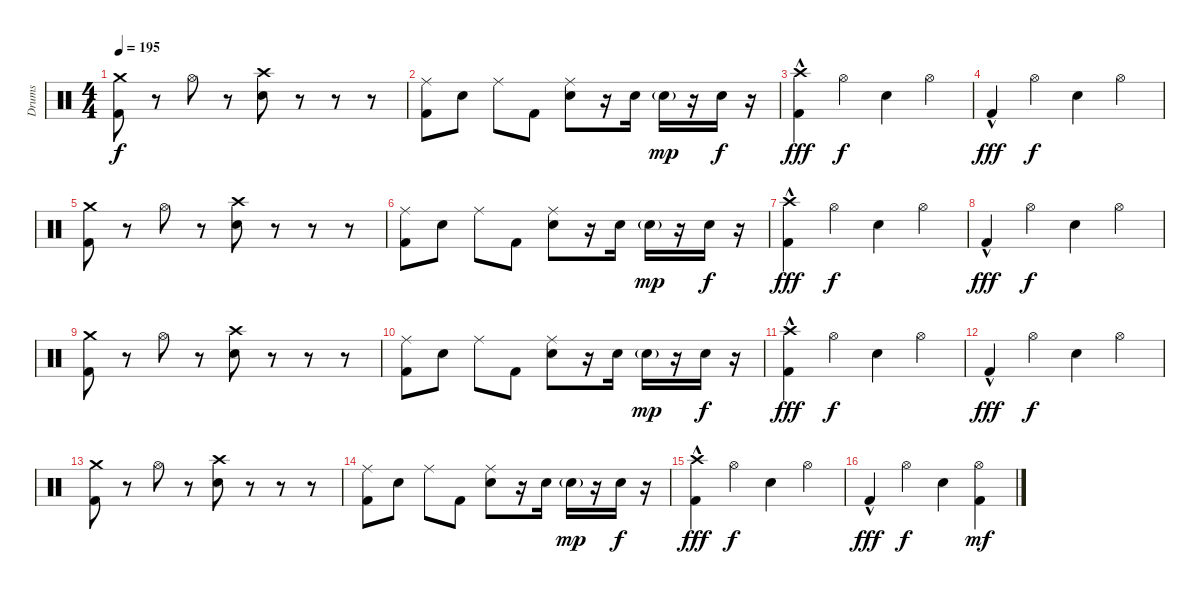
\track ("Drums" "Drums") {instrument percussion}
\staff {score}
\articulation defaults
\ts (4 4)
\tempo 195
\clef neutral
\ks c
("Crash medium (hit)" "Kick (hit) 2").8{dy f} r.8 "Hi-Hat (open)".8 r.8 ("Crash high (hit)" "Electric Snare (hit)").8 r.8 r.8 r.8 |
("Ride (middle)" "Kick (hit) 2").8 "Electric Snare (hit)".8 "Ride (middle)".8 "Kick (hit) 2".8 ("Ride (middle)" "Electric Snare (hit)").8 r.16 "Electric Snare (hit)".16 "Electric Snare (hit)"{g}.16{dy mp} r.16 "Electric Snare (hit)".16{dy f} r.16 |
("Crash high (hit)" "Kick (hit) 2"{hac}).4{dy fff} "Hi-Hat (open)".4{dy f} "Electric Snare (hit)".4 "Hi-Hat (open)".4 |
"Kick (hit) 2"{hac}.4{dy fff} "Hi-Hat (open)".4{dy f} "Electric Snare (hit)".4 "Hi-Hat (open)".4 |
("Crash medium (hit)" "Kick (hit) 2").8 r.8 "Hi-Hat (open)".8 r.8 ("Crash high (hit)" "Electric Snare (hit)").8 r.8 r.8 r.8 |
("Ride (middle)" "Kick (hit) 2").8 "Electric Snare (hit)".8 "Ride (middle)".8 "Kick (hit) 2".8 ("Ride (middle)" "Electric Snare (hit)").8 r.16 "Electric Snare (hit)".16 "Electric Snare (hit)"{g}.16{dy mp} r.16 "Electric Snare (hit)".16{dy f} r.16 |
("Crash high (hit)" "Kick (hit) 2"{hac}).4{dy fff} "Hi-Hat (open)".4{dy f} "Electric Snare (hit)".4 "Hi-Hat (open)".4 |
"Kick (hit) 2"{hac}.4{dy fff} "Hi-Hat (open)".4{dy f} "Electric Snare (hit)".4 "Hi-Hat (open)".4 |
("Crash medium (hit)" "Kick (hit) 2").8 r.8 "Hi-Hat (open)".8 r.8 ("Crash high (hit)" "Electric Snare (hit)").8 r.8 r.8 r.8 |
("Ride (middle)" "Kick (hit) 2").8 "Electric Snare (hit)".8 "Ride (middle)".8 "Kick (hit) 2".8 ("Ride (middle)" "Electric Snare (hit)").8 r.16 "Electric Snare (hit)".16 "Electric Snare (hit)"{g}.16{dy mp} r.16 "Electric Snare (hit)".16{dy f} r.16 |
("Crash high (hit)" "Kick (hit) 2"{hac}).4{dy fff} "Hi-Hat (open)".4{dy f} "Electric Snare (hit)".4 "Hi-Hat (open)".4 |
"Kick (hit) 2"{hac}.4{dy fff} "Hi-Hat (open)".4{dy f} "Electric Snare (hit)".4 "Hi-Hat (open)".4 |
("Crash medium (hit)" "Kick (hit) 2").8 r.8 "Hi-Hat (open)".8 r.8 ("Crash high (hit)" "Electric Snare (hit)").8 r.8 r.8 r.8 |
("Ride (middle)" "Kick (hit) 2").8 "Electric Snare (hit)".8 "Ride (middle)".8 "Kick (hit) 2".8 ("Ride (middle)" "Electric Snare (hit)").8 r.16 "Electric Snare (hit)".16 "Electric Snare (hit)"{g}.16{dy mp} r.16 "Electric Snare (hit)".16{dy f} r.16 |
("Crash high (hit)" "Kick (hit) 2"{hac}).4{dy fff} "Hi-Hat (open)".4{dy f} "Electric Snare (hit)".4 "Hi-Hat (open)".4 |
"Kick (hit) 2"{hac}.4{dy fff} "Hi-Hat (open)".4{dy f} "Electric Snare (hit)".4 ("Hi-Hat (open)" "Kick (hit) 2").4{dy mf}
